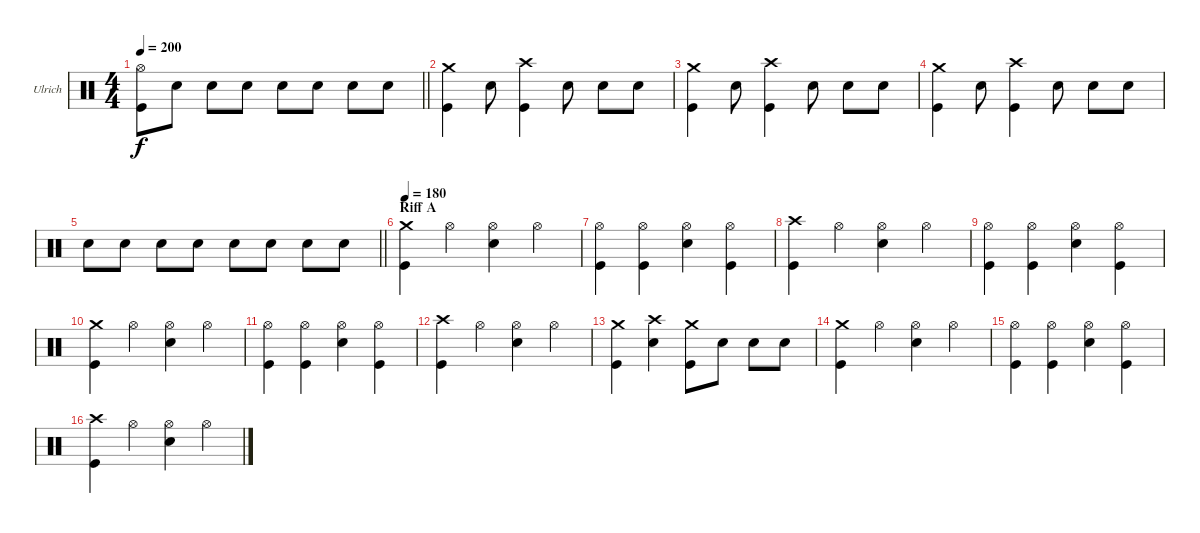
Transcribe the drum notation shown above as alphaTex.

\bracketExtendMode groupsimilarinstruments
\firstSystemTrackNameOrientation horizontal
\otherSystemsTrackNameOrientation horizontal
\track ("Drumkit" "Ulrich") {instrument percussion}
\staff {score}
\articulation defaults
\ts (4 4)
\tempo 200
\clef neutral
\barLineRight lightlight
\ks c
("Hi-Hat (open)" "Kick (hit)").8{dy f} "Snare (hit) 2".8 "Snare (hit) 2".8 "Snare (hit) 2".8 "Snare (hit) 2".8 "Snare (hit) 2".8 "Snare (hit) 2".8 "Snare (hit) 2".8 |
("Crash medium (hit)" "Kick (hit)").4 "Snare (hit) 2".8 ("Crash high (hit)" "Kick (hit)").4 "Snare (hit) 2".8 "Snare (hit) 2".8 "Snare (hit) 2".8 |
("Crash medium (hit)" "Kick (hit)").4 "Snare (hit) 2".8 ("Crash high (hit)" "Kick (hit)").4 "Snare (hit) 2".8 "Snare (hit) 2".8 "Snare (hit) 2".8 |
("Crash medium (hit)" "Kick (hit)").4 "Snare (hit) 2".8 ("Crash high (hit)" "Kick (hit)").4 "Snare (hit) 2".8 "Snare (hit) 2".8 "Snare (hit) 2".8 |
\barLineRight lightlight "Snare (hit) 2".8 "Snare (hit) 2".8 "Snare (hit) 2".8 "Snare (hit) 2".8 "Snare (hit) 2".8 "Snare (hit) 2".8 "Snare (hit) 2".8 "Snare (hit) 2".8
|
\section ("" "Riff A")
\tempo 180
("Crash medium (hit)" "Kick (hit)").4 "Hi-Hat (open)".4 ("Hi-Hat (open)" "Snare (hit) 2").4 "Hi-Hat (open)".4 |
("Hi-Hat (open)" "Kick (hit)").4 ("Hi-Hat (open)" "Kick (hit)").4 ("Hi-Hat (open)" "Snare (hit) 2").4 ("Hi-Hat (open)" "Kick (hit)").4 |
("Crash high (hit)" "Kick (hit)").4 "Hi-Hat (open)".4 ("Hi-Hat (open)" "Snare (hit) 2").4 "Hi-Hat (open)".4 |
("Hi-Hat (open)" "Kick (hit)").4 ("Hi-Hat (open)" "Kick (hit)").4 ("Hi-Hat (open)" "Snare (hit) 2").4 ("Hi-Hat (open)" "Kick (hit)").4 |
("Crash medium (hit)" "Kick (hit)").4 "Hi-Hat (open)".4 ("Hi-Hat (open)" "Snare (hit) 2").4 "Hi-Hat (open)".4 |
("Hi-Hat (open)" "Kick (hit)").4 ("Hi-Hat (open)" "Kick (hit)").4 ("Hi-Hat (open)" "Snare (hit) 2").4 ("Hi-Hat (open)" "Kick (hit)").4 |
("Crash high (hit)" "Kick (hit)").4 "Hi-Hat (open)".4 ("Hi-Hat (open)" "Snare (hit) 2").4 "Hi-Hat (open)".4 |
("Crash medium (hit)" "Kick (hit)").4 ("Crash high (hit)" "Snare (hit) 2").4 ("Crash medium (hit)" "Kick (hit)").8 "Snare (hit) 2".8 "Snare (hit) 2".8 "Snare (hit) 2".8 |
("Crash medium (hit)" "Kick (hit)").4 "Hi-Hat (open)".4 ("Hi-Hat (open)" "Snare (hit) 2").4 "Hi-Hat (open)".4 |
("Hi-Hat (open)" "Kick (hit)").4 ("Hi-Hat (open)" "Kick (hit)").4 ("Hi-Hat (open)" "Snare (hit) 2").4 ("Hi-Hat (open)" "Kick (hit)").4 |
("Crash high (hit)" "Kick (hit)").4 "Hi-Hat (open)".4 ("Hi-Hat (open)" "Snare (hit) 2").4 "Hi-Hat (open)".4
